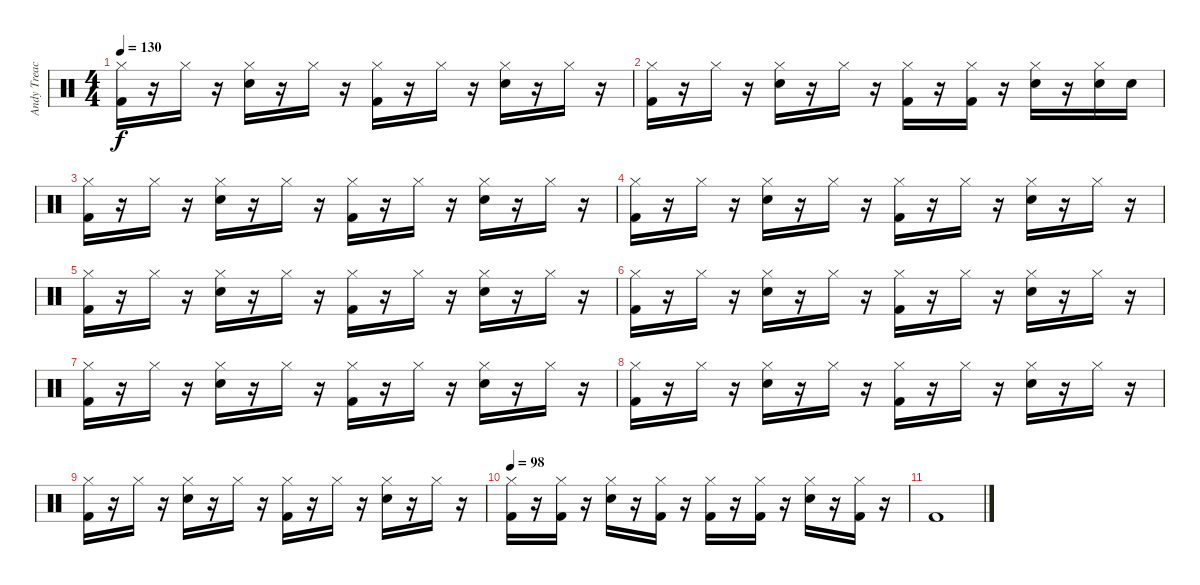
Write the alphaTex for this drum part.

\track ("Andy Treacey" "Andy Treac") {instrument percussion}
\staff {score}
\articulation defaults
\ts (4 4)
\tempo 130
\clef neutral
\ks c
("Hi-Hat (closed)" "Kick (hit) 2").16{dy f} r.16 "Hi-Hat (closed)".16 r.16 ("Hi-Hat (closed)" "Snare (hit) 2").16 r.16 "Hi-Hat (closed)".16 r.16 ("Hi-Hat (closed)" "Kick (hit) 2").16 r.16 "Hi-Hat (closed)".16 r.16 ("Hi-Hat (closed)" "Snare (hit) 2").16 r.16 "Hi-Hat (closed)".16 r.16 |
("Hi-Hat (closed)" "Kick (hit) 2").16 r.16 "Hi-Hat (closed)".16 r.16 ("Hi-Hat (closed)" "Snare (hit) 2").16 r.16 "Hi-Hat (closed)".16 r.16 ("Hi-Hat (closed)" "Kick (hit) 2").16 r.16 ("Hi-Hat (closed)" "Kick (hit) 2").16 r.16 ("Hi-Hat (closed)" "Snare (hit) 2").16 r.16 ("Hi-Hat (closed)" "Snare (hit) 2").16 "Snare (hit) 2".16 |
("Hi-Hat (closed)" "Kick (hit) 2").16 r.16 "Hi-Hat (closed)".16 r.16 ("Hi-Hat (closed)" "Snare (hit) 2").16 r.16 "Hi-Hat (closed)".16 r.16 ("Hi-Hat (closed)" "Kick (hit) 2").16 r.16 "Hi-Hat (closed)".16 r.16 ("Hi-Hat (closed)" "Snare (hit) 2").16 r.16 "Hi-Hat (closed)".16 r.16 |
("Hi-Hat (closed)" "Kick (hit) 2").16 r.16 "Hi-Hat (closed)".16 r.16 ("Hi-Hat (closed)" "Snare (hit) 2").16 r.16 "Hi-Hat (closed)".16 r.16 ("Hi-Hat (closed)" "Kick (hit) 2").16 r.16 "Hi-Hat (closed)".16 r.16 ("Hi-Hat (closed)" "Snare (hit) 2").16 r.16 "Hi-Hat (closed)".16 r.16 |
("Hi-Hat (closed)" "Kick (hit) 2").16 r.16 "Hi-Hat (closed)".16 r.16 ("Hi-Hat (closed)" "Snare (hit) 2").16 r.16 "Hi-Hat (closed)".16 r.16 ("Hi-Hat (closed)" "Kick (hit) 2").16 r.16 "Hi-Hat (closed)".16 r.16 ("Hi-Hat (closed)" "Snare (hit) 2").16 r.16 "Hi-Hat (closed)".16 r.16 |
("Hi-Hat (closed)" "Kick (hit) 2").16 r.16 "Hi-Hat (closed)".16 r.16 ("Hi-Hat (closed)" "Snare (hit) 2").16 r.16 "Hi-Hat (closed)".16 r.16 ("Hi-Hat (closed)" "Kick (hit) 2").16 r.16 "Hi-Hat (closed)".16 r.16 ("Hi-Hat (closed)" "Snare (hit) 2").16 r.16 "Hi-Hat (closed)".16 r.16 |
("Hi-Hat (closed)" "Kick (hit) 2").16 r.16 "Hi-Hat (closed)".16 r.16 ("Hi-Hat (closed)" "Snare (hit) 2").16 r.16 "Hi-Hat (closed)".16 r.16 ("Hi-Hat (closed)" "Kick (hit) 2").16 r.16 "Hi-Hat (closed)".16 r.16 ("Hi-Hat (closed)" "Snare (hit) 2").16 r.16 "Hi-Hat (closed)".16 r.16 |
("Hi-Hat (closed)" "Kick (hit) 2").16 r.16 "Hi-Hat (closed)".16 r.16 ("Hi-Hat (closed)" "Snare (hit) 2").16 r.16 "Hi-Hat (closed)".16 r.16 ("Hi-Hat (closed)" "Kick (hit) 2").16 r.16 "Hi-Hat (closed)".16 r.16 ("Hi-Hat (closed)" "Snare (hit) 2").16 r.16 "Hi-Hat (closed)".16 r.16 |
("Hi-Hat (closed)" "Kick (hit) 2").16 r.16 "Hi-Hat (closed)".16 r.16 ("Hi-Hat (closed)" "Snare (hit) 2").16 r.16 "Hi-Hat (closed)".16 r.16 ("Hi-Hat (closed)" "Kick (hit) 2").16 r.16 "Hi-Hat (closed)".16 r.16 ("Hi-Hat (closed)" "Snare (hit) 2").16 r.16 "Hi-Hat (closed)".16 r.16 |
\tempo 98
("Hi-Hat (closed)" "Kick (hit) 2").16 r.16 ("Hi-Hat (closed)" "Kick (hit) 2").16 r.16 ("Hi-Hat (closed)" "Snare (hit) 2").16 r.16 ("Hi-Hat (closed)" "Kick (hit) 2").16 r.16 ("Hi-Hat (closed)" "Kick (hit) 2").16 r.16 ("Hi-Hat (closed)" "Kick (hit) 2").16 r.16 ("Hi-Hat (closed)" "Snare (hit) 2").16 r.16 ("Hi-Hat (closed)" "Kick (hit) 2").16 r.16 |
"Kick (hit) 2".1
